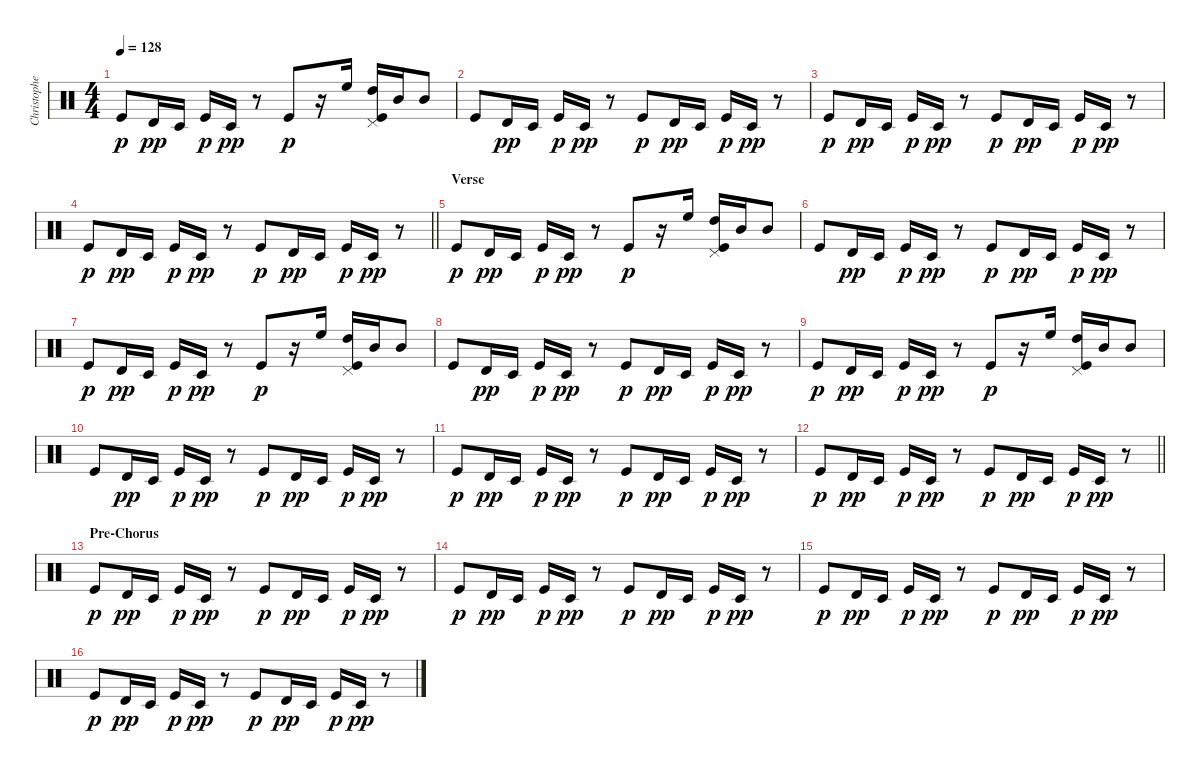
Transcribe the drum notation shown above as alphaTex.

\track ("Christopher - Drum Effects" "Christophe") {instrument percussion}
\staff {score}
\articulation defaults
\ts (4 4)
\tempo 128
\clef neutral
\ks c "Kick (hit)".8{dy p} "Timbale high (hit)".16{dy pp} "Timbale low (hit)".16 "Kick (hit)".16{dy p} "Timbale low (hit)".16{dy pp}
r.8 "Kick (hit)".8{dy p} r.16 "High Floor Tom (hit)".16 ("Pedal Hi-Hat (hit)" "High Tom (hit)" "Kick (hit)").16 "Mid Tom (hit)".16 "Mid Tom (hit)".8 |
"Kick (hit)".8 "Timbale high (hit)".16{dy pp} "Timbale low (hit)".16 "Kick (hit)".16{dy p} "Timbale low (hit)".16{dy pp} r.8 "Kick (hit)".8{dy p} "Timbale high (hit)".16{dy pp} "Timbale low (hit)".16 "Kick (hit)".16{dy p} "Timbale low (hit)".16{dy pp} r.8 |
"Kick (hit)".8{dy p} "Timbale high (hit)".16{dy pp} "Timbale low (hit)".16 "Kick (hit)".16{dy p} "Timbale low (hit)".16{dy pp} r.8 "Kick (hit)".8{dy p} "Timbale high (hit)".16{dy pp} "Timbale low (hit)".16 "Kick (hit)".16{dy p} "Timbale low (hit)".16{dy pp} r.8 |
\barLineRight lightlight "Kick (hit)".8{dy p} "Timbale high (hit)".16{dy pp} "Timbale low (hit)".16 "Kick (hit)".16{dy p} "Timbale low (hit)".16{dy pp}
r.8 "Kick (hit)".8{dy p} "Timbale high (hit)".16{dy pp} "Timbale low (hit)".16 "Kick (hit)".16{dy p} "Timbale low (hit)".16{dy pp} r.8 |
\section ("" "Verse")
"Kick (hit)".8{dy p} "Timbale high (hit)".16{dy pp} "Timbale low (hit)".16 "Kick (hit)".16{dy p} "Timbale low (hit)".16{dy pp} r.8 "Kick (hit)".8{dy p} r.16 "High Floor Tom (hit)".16 ("Pedal Hi-Hat (hit)" "High Tom (hit)" "Kick (hit)").16 "Mid Tom (hit)".16 "Mid Tom (hit)".8 |
"Kick (hit)".8 "Timbale high (hit)".16{dy pp} "Timbale low (hit)".16 "Kick (hit)".16{dy p} "Timbale low (hit)".16{dy pp} r.8 "Kick (hit)".8{dy p} "Timbale high (hit)".16{dy pp} "Timbale low (hit)".16 "Kick (hit)".16{dy p} "Timbale low (hit)".16{dy pp} r.8 |
"Kick (hit)".8{dy p} "Timbale high (hit)".16{dy pp} "Timbale low (hit)".16 "Kick (hit)".16{dy p} "Timbale low (hit)".16{dy pp} r.8 "Kick (hit)".8{dy p} r.16 "High Floor Tom (hit)".16 ("Pedal Hi-Hat (hit)" "High Tom (hit)" "Kick (hit)").16 "Mid Tom (hit)".16 "Mid Tom (hit)".8 |
"Kick (hit)".8 "Timbale high (hit)".16{dy pp} "Timbale low (hit)".16 "Kick (hit)".16{dy p} "Timbale low (hit)".16{dy pp} r.8 "Kick (hit)".8{dy p} "Timbale high (hit)".16{dy pp} "Timbale low (hit)".16 "Kick (hit)".16{dy p} "Timbale low (hit)".16{dy pp} r.8 |
"Kick (hit)".8{dy p} "Timbale high (hit)".16{dy pp} "Timbale low (hit)".16 "Kick (hit)".16{dy p} "Timbale low (hit)".16{dy pp} r.8 "Kick (hit)".8{dy p} r.16 "High Floor Tom (hit)".16 ("Pedal Hi-Hat (hit)" "High Tom (hit)" "Kick (hit)").16 "Mid Tom (hit)".16 "Mid Tom (hit)".8 |
"Kick (hit)".8 "Timbale high (hit)".16{dy pp} "Timbale low (hit)".16 "Kick (hit)".16{dy p} "Timbale low (hit)".16{dy pp} r.8 "Kick (hit)".8{dy p} "Timbale high (hit)".16{dy pp} "Timbale low (hit)".16 "Kick (hit)".16{dy p} "Timbale low (hit)".16{dy pp} r.8 |
"Kick (hit)".8{dy p} "Timbale high (hit)".16{dy pp} "Timbale low (hit)".16 "Kick (hit)".16{dy p} "Timbale low (hit)".16{dy pp} r.8 "Kick (hit)".8{dy p} "Timbale high (hit)".16{dy pp} "Timbale low (hit)".16 "Kick (hit)".16{dy p} "Timbale low (hit)".16{dy pp} r.8 |
\barLineRight lightlight "Kick (hit)".8{dy p} "Timbale high (hit)".16{dy pp} "Timbale low (hit)".16 "Kick (hit)".16{dy p} "Timbale low (hit)".16{dy pp}
r.8 "Kick (hit)".8{dy p} "Timbale high (hit)".16{dy pp} "Timbale low (hit)".16 "Kick (hit)".16{dy p} "Timbale low (hit)".16{dy pp} r.8 |
\section ("" "Pre-Chorus")
"Kick (hit)".8{dy p} "Timbale high (hit)".16{dy pp} "Timbale low (hit)".16 "Kick (hit)".16{dy p} "Timbale low (hit)".16{dy pp} r.8 "Kick (hit)".8{dy p} "Timbale high (hit)".16{dy pp} "Timbale low (hit)".16 "Kick (hit)".16{dy p} "Timbale low (hit)".16{dy pp} r.8 |
"Kick (hit)".8{dy p} "Timbale high (hit)".16{dy pp} "Timbale low (hit)".16 "Kick (hit)".16{dy p} "Timbale low (hit)".16{dy pp} r.8 "Kick (hit)".8{dy p} "Timbale high (hit)".16{dy pp} "Timbale low (hit)".16 "Kick (hit)".16{dy p} "Timbale low (hit)".16{dy pp} r.8 |
"Kick (hit)".8{dy p} "Timbale high (hit)".16{dy pp} "Timbale low (hit)".16 "Kick (hit)".16{dy p} "Timbale low (hit)".16{dy pp} r.8 "Kick (hit)".8{dy p} "Timbale high (hit)".16{dy pp} "Timbale low (hit)".16 "Kick (hit)".16{dy p} "Timbale low (hit)".16{dy pp} r.8 |
"Kick (hit)".8{dy p} "Timbale high (hit)".16{dy pp} "Timbale low (hit)".16 "Kick (hit)".16{dy p} "Timbale low (hit)".16{dy pp} r.8 "Kick (hit)".8{dy p} "Timbale high (hit)".16{dy pp} "Timbale low (hit)".16 "Kick (hit)".16{dy p} "Timbale low (hit)".16{dy pp} r.8
